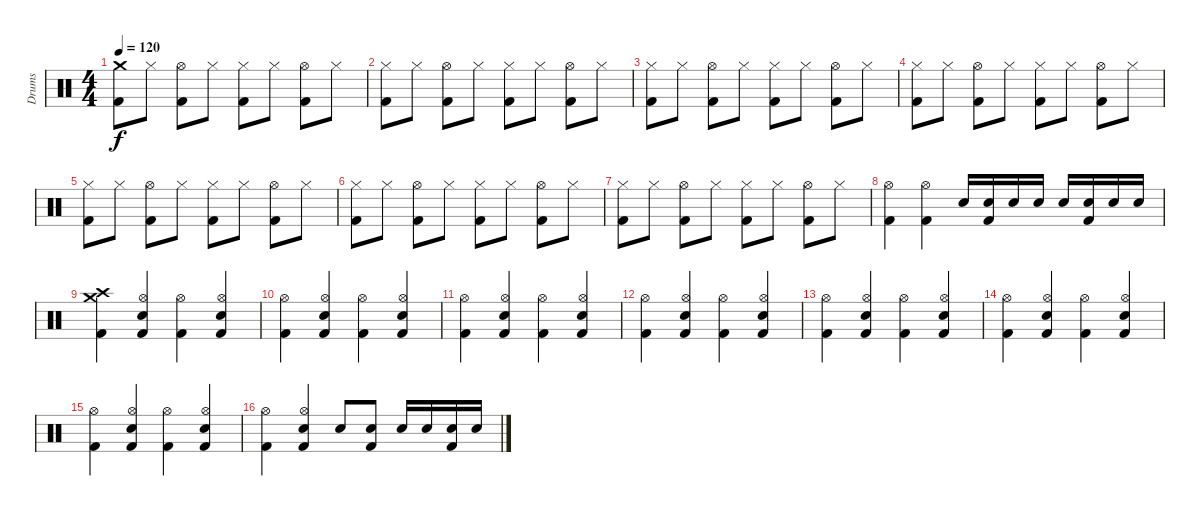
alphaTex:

\track ("Drums" "Drums") {instrument percussion}
\staff {score}
\articulation defaults
\ts (4 4)
\tempo 120
\clef neutral
\ks c
("Crash medium (hit)" "Kick (hit) 2").8{dy f} "Hi-Hat (closed)".8 ("Hi-Hat (open)" "Kick (hit) 2").8 "Hi-Hat (closed)".8 ("Hi-Hat (closed)" "Kick (hit) 2").8 "Hi-Hat (closed)".8 ("Hi-Hat (open)" "Kick (hit) 2").8 "Hi-Hat (closed)".8 |
("Hi-Hat (closed)" "Kick (hit) 2").8 "Hi-Hat (closed)".8 ("Hi-Hat (open)" "Kick (hit) 2").8 "Hi-Hat (closed)".8 ("Hi-Hat (closed)" "Kick (hit) 2").8 "Hi-Hat (closed)".8 ("Hi-Hat (open)" "Kick (hit) 2").8 "Hi-Hat (closed)".8 |
("Hi-Hat (closed)" "Kick (hit) 2").8 "Hi-Hat (closed)".8 ("Hi-Hat (open)" "Kick (hit) 2").8 "Hi-Hat (closed)".8 ("Hi-Hat (closed)" "Kick (hit) 2").8 "Hi-Hat (closed)".8 ("Hi-Hat (open)" "Kick (hit) 2").8 "Hi-Hat (closed)".8 |
("Hi-Hat (closed)" "Kick (hit) 2").8 "Hi-Hat (closed)".8 ("Hi-Hat (open)" "Kick (hit) 2").8 "Hi-Hat (closed)".8 ("Hi-Hat (closed)" "Kick (hit) 2").8 "Hi-Hat (closed)".8 ("Hi-Hat (open)" "Kick (hit) 2").8 "Hi-Hat (closed)".8 |
("Hi-Hat (closed)" "Kick (hit) 2").8 "Hi-Hat (closed)".8 ("Hi-Hat (open)" "Kick (hit) 2").8 "Hi-Hat (closed)".8 ("Hi-Hat (closed)" "Kick (hit) 2").8 "Hi-Hat (closed)".8 ("Hi-Hat (open)" "Kick (hit) 2").8 "Hi-Hat (closed)".8 |
("Hi-Hat (closed)" "Kick (hit) 2").8 "Hi-Hat (closed)".8 ("Hi-Hat (open)" "Kick (hit) 2").8 "Hi-Hat (closed)".8 ("Hi-Hat (closed)" "Kick (hit) 2").8 "Hi-Hat (closed)".8 ("Hi-Hat (open)" "Kick (hit) 2").8 "Hi-Hat (closed)".8 |
("Hi-Hat (closed)" "Kick (hit) 2").8 "Hi-Hat (closed)".8 ("Hi-Hat (open)" "Kick (hit) 2").8 "Hi-Hat (closed)".8 ("Hi-Hat (closed)" "Kick (hit) 2").8 "Hi-Hat (closed)".8 ("Hi-Hat (open)" "Kick (hit) 2").8 "Hi-Hat (closed)".8 |
("Hi-Hat (open)" "Kick (hit) 2").4 ("Hi-Hat (open)" "Kick (hit) 2").4 "Electric Snare (hit)".16 ("Kick (hit) 2" "Electric Snare (hit)").16 "Electric Snare (hit)".16 "Electric Snare (hit)".16 "Electric Snare (hit)".16 ("Kick (hit) 2" "Electric Snare (hit)").16 "Electric Snare (hit)".16 "Electric Snare (hit)".16 |
("Crash medium (hit)" "Crash high (hit)" "Kick (hit) 2").4 ("Hi-Hat (open)" "Electric Snare (hit)" "Kick (hit) 2").4 ("Hi-Hat (open)" "Kick (hit) 2").4 ("Hi-Hat (open)" "Electric Snare (hit)" "Kick (hit) 2").4 |
("Hi-Hat (open)" "Kick (hit) 2").4 ("Hi-Hat (open)" "Electric Snare (hit)" "Kick (hit) 2").4 ("Hi-Hat (open)" "Kick (hit) 2").4 ("Hi-Hat (open)" "Electric Snare (hit)" "Kick (hit) 2").4 |
("Hi-Hat (open)" "Kick (hit) 2").4 ("Hi-Hat (open)" "Electric Snare (hit)" "Kick (hit) 2").4 ("Hi-Hat (open)" "Kick (hit) 2").4 ("Hi-Hat (open)" "Electric Snare (hit)" "Kick (hit) 2").4 |
("Hi-Hat (open)" "Kick (hit) 2").4 ("Hi-Hat (open)" "Electric Snare (hit)" "Kick (hit) 2").4 ("Hi-Hat (open)" "Kick (hit) 2").4 ("Hi-Hat (open)" "Electric Snare (hit)" "Kick (hit) 2").4 |
("Hi-Hat (open)" "Kick (hit) 2").4 ("Hi-Hat (open)" "Electric Snare (hit)" "Kick (hit) 2").4 ("Hi-Hat (open)" "Kick (hit) 2").4 ("Hi-Hat (open)" "Electric Snare (hit)" "Kick (hit) 2").4 |
("Hi-Hat (open)" "Kick (hit) 2").4 ("Hi-Hat (open)" "Electric Snare (hit)" "Kick (hit) 2").4 ("Hi-Hat (open)" "Kick (hit) 2").4 ("Hi-Hat (open)" "Electric Snare (hit)" "Kick (hit) 2").4 |
("Hi-Hat (open)" "Kick (hit) 2").4 ("Hi-Hat (open)" "Electric Snare (hit)" "Kick (hit) 2").4 ("Hi-Hat (open)" "Kick (hit) 2").4 ("Hi-Hat (open)" "Electric Snare (hit)" "Kick (hit) 2").4 |
("Hi-Hat (open)" "Kick (hit) 2").4 ("Hi-Hat (open)" "Electric Snare (hit)" "Kick (hit) 2").4 "Electric Snare (hit)".8 ("Kick (hit) 2" "Electric Snare (hit)").8 "Electric Snare (hit)".16 "Electric Snare (hit)".16 ("Kick (hit) 2" "Electric Snare (hit)").16 "Electric Snare (hit)".16
